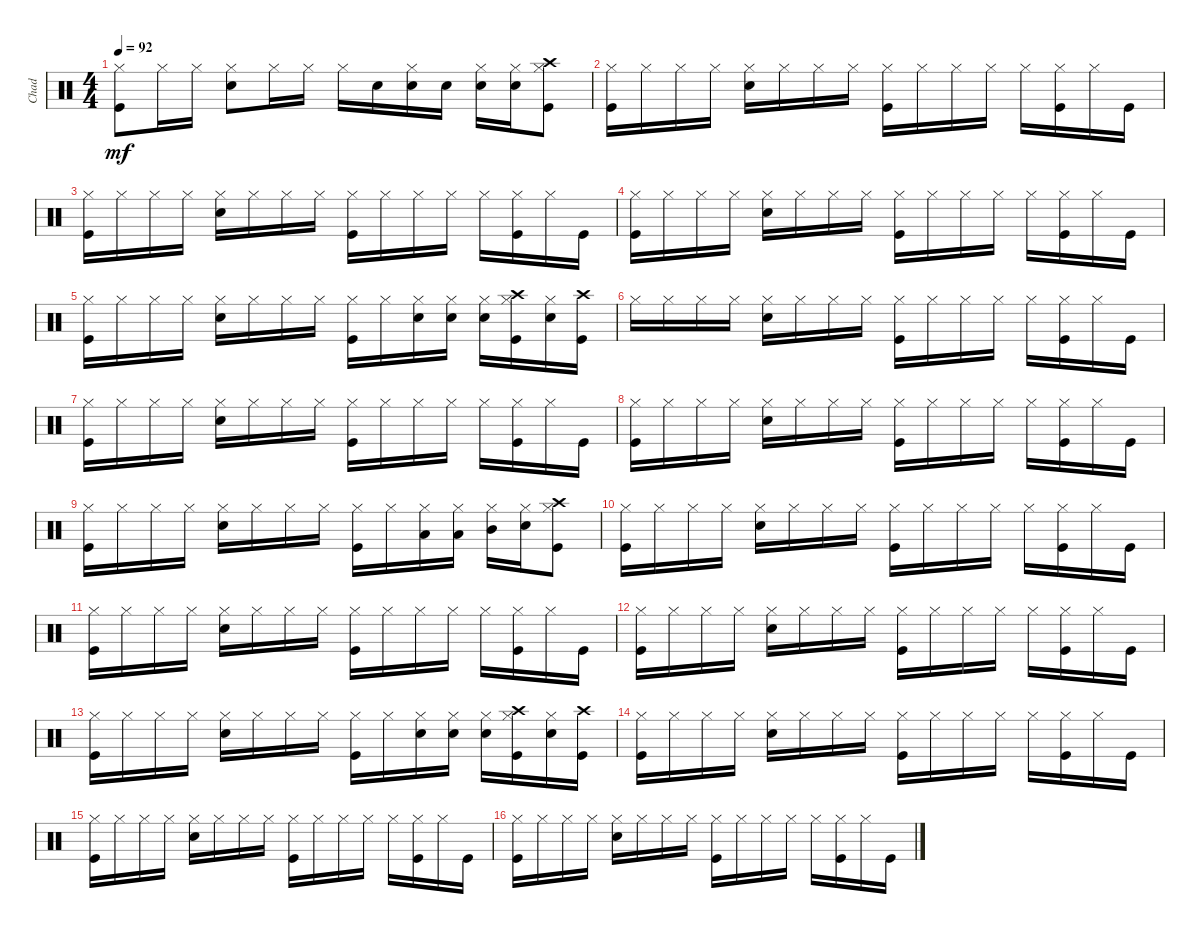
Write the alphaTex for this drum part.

\track ("Chad" "Chad") {instrument percussion}
\staff {score}
\articulation defaults
\ts (4 4)
\tempo 92
\clef neutral
\ks c
("Kick (hit)" "Hi-Hat (closed)").8{dy mf} "Hi-Hat (closed)".16 "Hi-Hat (closed)".16 ("Snare (hit) 2" "Hi-Hat (closed)").8 "Hi-Hat (closed)".16 "Hi-Hat (closed)".16 "Hi-Hat (closed)".16 "Snare (hit) 2".16 ("Hi-Hat (closed)" "Snare (hit) 2").16 "Snare (hit) 2".16 ("Hi-Hat (closed)" "Snare (hit) 2").16 ("Hi-Hat (closed)" "Snare (hit) 2").16 ("Hi-Hat (closed)" "Kick (hit)" "Crash high (hit)").8 |
("Kick (hit)" "Hi-Hat (closed)").16 "Hi-Hat (closed)".16 "Hi-Hat (closed)".16 "Hi-Hat (closed)".16 ("Snare (hit) 2" "Hi-Hat (closed)").16 "Hi-Hat (closed)".16 "Hi-Hat (closed)".16 "Hi-Hat (closed)".16 ("Kick (hit)" "Hi-Hat (closed)").16 "Hi-Hat (closed)".16 "Hi-Hat (closed)".16 "Hi-Hat (closed)".16 "Hi-Hat (closed)".16 ("Kick (hit)" "Hi-Hat (closed)").16 "Hi-Hat (closed)".16 "Kick (hit)".16 |
("Kick (hit)" "Hi-Hat (closed)").16 "Hi-Hat (closed)".16 "Hi-Hat (closed)".16 "Hi-Hat (closed)".16 ("Snare (hit) 2" "Hi-Hat (closed)").16 "Hi-Hat (closed)".16 "Hi-Hat (closed)".16 "Hi-Hat (closed)".16 ("Kick (hit)" "Hi-Hat (closed)").16 "Hi-Hat (closed)".16 "Hi-Hat (closed)".16 "Hi-Hat (closed)".16 "Hi-Hat (closed)".16 ("Kick (hit)" "Hi-Hat (closed)").16 "Hi-Hat (closed)".16 "Kick (hit)".16 |
("Kick (hit)" "Hi-Hat (closed)").16 "Hi-Hat (closed)".16 "Hi-Hat (closed)".16 "Hi-Hat (closed)".16 ("Snare (hit) 2" "Hi-Hat (closed)").16 "Hi-Hat (closed)".16 "Hi-Hat (closed)".16 "Hi-Hat (closed)".16 ("Kick (hit)" "Hi-Hat (closed)").16 "Hi-Hat (closed)".16 "Hi-Hat (closed)".16 "Hi-Hat (closed)".16 "Hi-Hat (closed)".16 ("Kick (hit)" "Hi-Hat (closed)").16 "Hi-Hat (closed)".16 "Kick (hit)".16 |
("Kick (hit)" "Hi-Hat (closed)").16 "Hi-Hat (closed)".16 "Hi-Hat (closed)".16 "Hi-Hat (closed)".16 ("Snare (hit) 2" "Hi-Hat (closed)").16 "Hi-Hat (closed)".16 "Hi-Hat (closed)".16 "Hi-Hat (closed)".16 ("Kick (hit)" "Hi-Hat (closed)").16 "Hi-Hat (closed)".16 ("Hi-Hat (closed)" "Snare (hit) 2").16 ("Hi-Hat (closed)" "Snare (hit) 2").16 ("Hi-Hat (closed)" "Snare (hit) 2").16 ("Hi-Hat (closed)" "Kick (hit)" "Crash high (hit)").16 ("Hi-Hat (closed)" "Snare (hit) 2").16 ("Kick (hit)" "Crash high (hit)").16 |
"Hi-Hat (closed)".16 "Hi-Hat (closed)".16 "Hi-Hat (closed)".16 "Hi-Hat (closed)".16 ("Snare (hit) 2" "Hi-Hat (closed)").16 "Hi-Hat (closed)".16 "Hi-Hat (closed)".16 "Hi-Hat (closed)".16 ("Kick (hit)" "Hi-Hat (closed)").16 "Hi-Hat (closed)".16 "Hi-Hat (closed)".16 "Hi-Hat (closed)".16 "Hi-Hat (closed)".16 ("Kick (hit)" "Hi-Hat (closed)").16 "Hi-Hat (closed)".16 "Kick (hit)".16 |
("Kick (hit)" "Hi-Hat (closed)").16 "Hi-Hat (closed)".16 "Hi-Hat (closed)".16 "Hi-Hat (closed)".16 ("Snare (hit) 2" "Hi-Hat (closed)").16 "Hi-Hat (closed)".16 "Hi-Hat (closed)".16 "Hi-Hat (closed)".16 ("Kick (hit)" "Hi-Hat (closed)").16 "Hi-Hat (closed)".16 "Hi-Hat (closed)".16 "Hi-Hat (closed)".16 "Hi-Hat (closed)".16 ("Kick (hit)" "Hi-Hat (closed)").16 "Hi-Hat (closed)".16 "Kick (hit)".16 |
("Kick (hit)" "Hi-Hat (closed)").16 "Hi-Hat (closed)".16 "Hi-Hat (closed)".16 "Hi-Hat (closed)".16 ("Snare (hit) 2" "Hi-Hat (closed)").16 "Hi-Hat (closed)".16 "Hi-Hat (closed)".16 "Hi-Hat (closed)".16 ("Kick (hit)" "Hi-Hat (closed)").16 "Hi-Hat (closed)".16 "Hi-Hat (closed)".16 "Hi-Hat (closed)".16 "Hi-Hat (closed)".16 ("Kick (hit)" "Hi-Hat (closed)").16 "Hi-Hat (closed)".16 "Kick (hit)".16 |
("Kick (hit)" "Hi-Hat (closed)").16 "Hi-Hat (closed)".16 "Hi-Hat (closed)".16 "Hi-Hat (closed)".16 ("Snare (hit) 2" "Hi-Hat (closed)").16 "Hi-Hat (closed)".16 "Hi-Hat (closed)".16 "Hi-Hat (closed)".16 ("Kick (hit)" "Hi-Hat (closed)").16 "Hi-Hat (closed)".16 ("Hi-Hat (closed)" "Low Tom (hit)").16 ("Hi-Hat (closed)" "Low Tom (hit)").16 ("Hi-Hat (closed)" "Mid Tom (hit)").16 ("Hi-Hat (closed)" "Snare (hit) 2").16 ("Hi-Hat (closed)" "Kick (hit)" "Crash high (hit)").8 |
("Kick (hit)" "Hi-Hat (closed)").16 "Hi-Hat (closed)".16 "Hi-Hat (closed)".16 "Hi-Hat (closed)".16 ("Snare (hit) 2" "Hi-Hat (closed)").16 "Hi-Hat (closed)".16 "Hi-Hat (closed)".16 "Hi-Hat (closed)".16 ("Kick (hit)" "Hi-Hat (closed)").16 "Hi-Hat (closed)".16 "Hi-Hat (closed)".16 "Hi-Hat (closed)".16 "Hi-Hat (closed)".16 ("Kick (hit)" "Hi-Hat (closed)").16 "Hi-Hat (closed)".16 "Kick (hit)".16 |
("Kick (hit)" "Hi-Hat (closed)").16 "Hi-Hat (closed)".16 "Hi-Hat (closed)".16 "Hi-Hat (closed)".16 ("Snare (hit) 2" "Hi-Hat (closed)").16 "Hi-Hat (closed)".16 "Hi-Hat (closed)".16 "Hi-Hat (closed)".16 ("Kick (hit)" "Hi-Hat (closed)").16 "Hi-Hat (closed)".16 "Hi-Hat (closed)".16 "Hi-Hat (closed)".16 "Hi-Hat (closed)".16 ("Kick (hit)" "Hi-Hat (closed)").16 "Hi-Hat (closed)".16 "Kick (hit)".16 |
("Kick (hit)" "Hi-Hat (closed)").16 "Hi-Hat (closed)".16 "Hi-Hat (closed)".16 "Hi-Hat (closed)".16 ("Snare (hit) 2" "Hi-Hat (closed)").16 "Hi-Hat (closed)".16 "Hi-Hat (closed)".16 "Hi-Hat (closed)".16 ("Kick (hit)" "Hi-Hat (closed)").16 "Hi-Hat (closed)".16 "Hi-Hat (closed)".16 "Hi-Hat (closed)".16 "Hi-Hat (closed)".16 ("Kick (hit)" "Hi-Hat (closed)").16 "Hi-Hat (closed)".16 "Kick (hit)".16 |
("Kick (hit)" "Hi-Hat (closed)").16 "Hi-Hat (closed)".16 "Hi-Hat (closed)".16 "Hi-Hat (closed)".16 ("Snare (hit) 2" "Hi-Hat (closed)").16 "Hi-Hat (closed)".16 "Hi-Hat (closed)".16 "Hi-Hat (closed)".16 ("Kick (hit)" "Hi-Hat (closed)").16 "Hi-Hat (closed)".16 ("Hi-Hat (closed)" "Snare (hit) 2").16 ("Hi-Hat (closed)" "Snare (hit) 2").16 ("Hi-Hat (closed)" "Snare (hit) 2").16 ("Hi-Hat (closed)" "Kick (hit)" "Crash high (hit)").16 ("Hi-Hat (closed)" "Snare (hit) 2").16 ("Kick (hit)" "Crash high (hit)").16 |
("Kick (hit)" "Hi-Hat (closed)").16 "Hi-Hat (closed)".16 "Hi-Hat (closed)".16 "Hi-Hat (closed)".16 ("Snare (hit) 2" "Hi-Hat (closed)").16 "Hi-Hat (closed)".16 "Hi-Hat (closed)".16 "Hi-Hat (closed)".16 ("Kick (hit)" "Hi-Hat (closed)").16 "Hi-Hat (closed)".16 "Hi-Hat (closed)".16 "Hi-Hat (closed)".16 "Hi-Hat (closed)".16 ("Kick (hit)" "Hi-Hat (closed)").16 "Hi-Hat (closed)".16 "Kick (hit)".16 |
("Kick (hit)" "Hi-Hat (closed)").16 "Hi-Hat (closed)".16 "Hi-Hat (closed)".16 "Hi-Hat (closed)".16 ("Snare (hit) 2" "Hi-Hat (closed)").16 "Hi-Hat (closed)".16 "Hi-Hat (closed)".16 "Hi-Hat (closed)".16 ("Kick (hit)" "Hi-Hat (closed)").16 "Hi-Hat (closed)".16 "Hi-Hat (closed)".16 "Hi-Hat (closed)".16 "Hi-Hat (closed)".16 ("Kick (hit)" "Hi-Hat (closed)").16 "Hi-Hat (closed)".16 "Kick (hit)".16 |
("Kick (hit)" "Hi-Hat (closed)").16 "Hi-Hat (closed)".16 "Hi-Hat (closed)".16 "Hi-Hat (closed)".16 ("Snare (hit) 2" "Hi-Hat (closed)").16 "Hi-Hat (closed)".16 "Hi-Hat (closed)".16 "Hi-Hat (closed)".16 ("Kick (hit)" "Hi-Hat (closed)").16 "Hi-Hat (closed)".16 "Hi-Hat (closed)".16 "Hi-Hat (closed)".16 "Hi-Hat (closed)".16 ("Kick (hit)" "Hi-Hat (closed)").16 "Hi-Hat (closed)".16 "Kick (hit)".16
